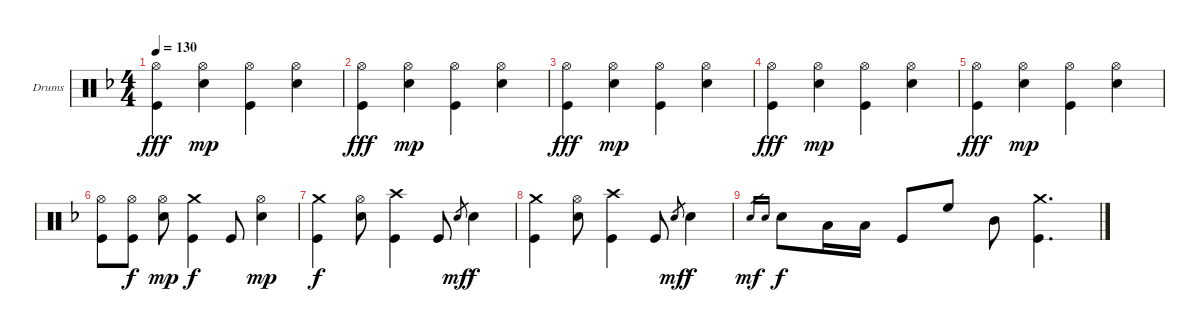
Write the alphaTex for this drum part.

\bracketExtendMode groupsimilarinstruments
\firstSystemTrackNameOrientation horizontal
\otherSystemsTrackNameOrientation horizontal
\track ("Александр Манякин" "Drums") {instrument percussion}
\staff {score}
\articulation defaults
\ts (4 4)
\tempo 130
\clef neutral
\ks f
("Hi-Hat (open)" "Kick (hit)").4{dy fff} ("Hi-Hat (open)" "Snare (hit) 2").4{dy mp} ("Hi-Hat (open)" "Kick (hit)").4 ("Hi-Hat (open)" "Snare (hit) 2").4 |
("Hi-Hat (open)" "Kick (hit)").4{dy fff} ("Hi-Hat (open)" "Snare (hit) 2").4{dy mp} ("Hi-Hat (open)" "Kick (hit)").4 ("Hi-Hat (open)" "Snare (hit) 2").4 |
("Hi-Hat (open)" "Kick (hit)").4{dy fff} ("Hi-Hat (open)" "Snare (hit) 2").4{dy mp} ("Hi-Hat (open)" "Kick (hit)").4 ("Hi-Hat (open)" "Snare (hit) 2").4 |
("Hi-Hat (open)" "Kick (hit)").4{dy fff} ("Hi-Hat (open)" "Snare (hit) 2").4{dy mp} ("Hi-Hat (open)" "Kick (hit)").4 ("Hi-Hat (open)" "Snare (hit) 2").4 |
("Hi-Hat (open)" "Kick (hit)").4{dy fff} ("Hi-Hat (open)" "Snare (hit) 2").4{dy mp} ("Hi-Hat (open)" "Kick (hit)").4 ("Hi-Hat (open)" "Snare (hit) 2").4 |
("Hi-Hat (open)" "Kick (hit)").8 ("Hi-Hat (open)" "Kick (hit)").8{dy f} ("Hi-Hat (open)" "Snare (hit) 2").8{dy mp} ("Crash medium (hit)" "Kick (hit)").4{dy f} "Kick (hit)".8 ("Hi-Hat (open)" "Snare (hit) 2").4{dy mp} |
("Crash medium (hit)" "Kick (hit)").4{dy f} ("Hi-Hat (open)" "Snare (hit) 2").8 ("Crash high (hit)" "Kick (hit)").4 "Kick (hit)".8 "Snare (hit) 2".8{gr dy mf} "Snare (hit) 2".4{dy f} |
("Crash medium (hit)" "Kick (hit)").4 ("Hi-Hat (open)" "Snare (hit) 2").8 ("Crash high (hit)" "Kick (hit)").4 "Kick (hit)".8 "Snare (hit) 2".8{gr dy mf} "Snare (hit) 2".4{dy f} |
"Snare (hit) 2".16{gr dy mf} "Snare (hit) 2".16{gr} "Snare (hit) 2".8{dy f} "Low Tom (hit)".16 "Low Tom (hit)".16 "Kick (hit)".8 "High Floor Tom (hit)".8 "Mid Tom (hit)".8 ("Crash medium (hit)" "Kick (hit)").4{d}
